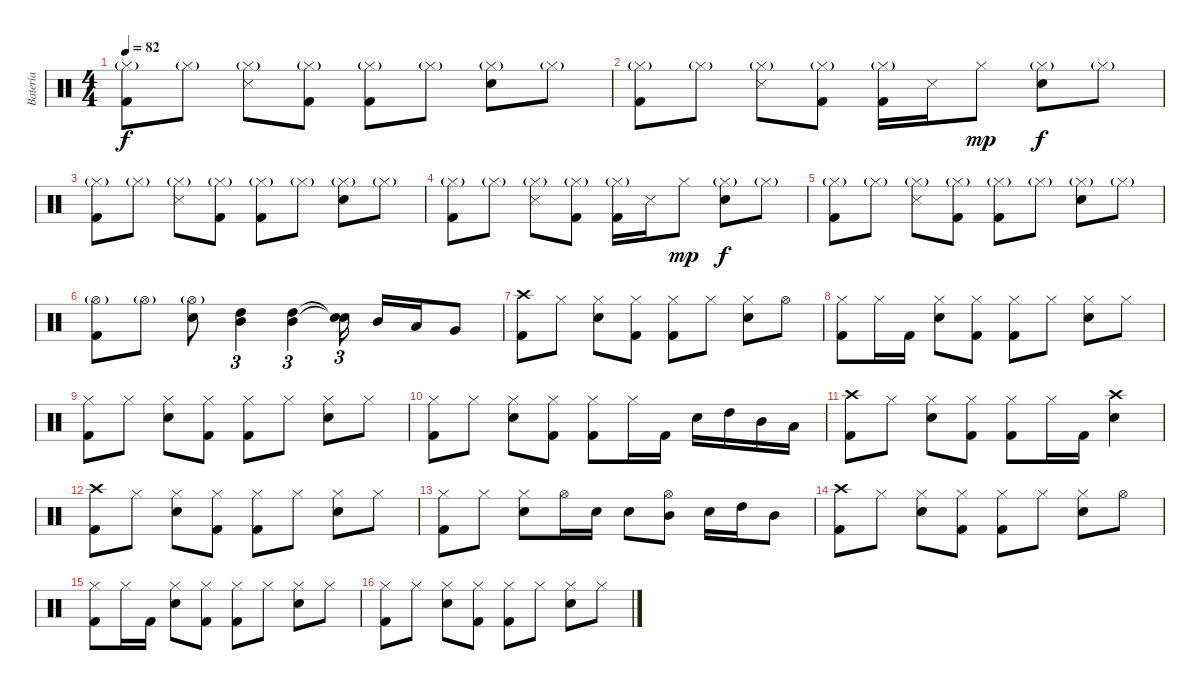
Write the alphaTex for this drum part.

\track ("Batería" "Batería") {instrument percussion}
\staff {score}
\articulation defaults
\ts (4 4)
\tempo 82
\clef neutral
\ks c
("Hi-Hat (closed)"{g} "Kick (hit) 2").8{dy f} "Hi-Hat (closed)"{g}.8 ("Hi-Hat (closed)"{g} "Snare (side stick) 3").8 ("Hi-Hat (closed)"{g} "Kick (hit) 2").8 ("Hi-Hat (closed)"{g} "Kick (hit) 2").8 "Hi-Hat (closed)"{g}.8 ("Hi-Hat (closed)"{g} "Snare (hit) 2").8 "Hi-Hat (closed)"{g}.8 |
("Hi-Hat (closed)"{g} "Kick (hit) 2").8 "Hi-Hat (closed)"{g}.8 ("Hi-Hat (closed)"{g} "Snare (side stick) 3").8 ("Hi-Hat (closed)"{g} "Kick (hit) 2").8 ("Hi-Hat (closed)"{g} "Kick (hit) 2").16 "Snare (side stick) 3".16 "Hi-Hat (closed)".8{dy mp} ("Hi-Hat (closed)"{g} "Snare (hit) 2").8{dy f} "Hi-Hat (closed)"{g}.8 |
("Hi-Hat (closed)"{g} "Kick (hit) 2").8 "Hi-Hat (closed)"{g}.8 ("Hi-Hat (closed)"{g} "Snare (side stick) 3").8 ("Hi-Hat (closed)"{g} "Kick (hit) 2").8 ("Hi-Hat (closed)"{g} "Kick (hit) 2").8 "Hi-Hat (closed)"{g}.8 ("Hi-Hat (closed)"{g} "Snare (hit) 2").8 "Hi-Hat (closed)"{g}.8 |
("Hi-Hat (closed)"{g} "Kick (hit) 2").8 "Hi-Hat (closed)"{g}.8 ("Hi-Hat (closed)"{g} "Snare (side stick) 3").8 ("Hi-Hat (closed)"{g} "Kick (hit) 2").8 ("Hi-Hat (closed)"{g} "Kick (hit) 2").16 "Snare (side stick) 3".16 "Hi-Hat (closed)".8{dy mp} ("Hi-Hat (closed)"{g} "Snare (hit) 2").8{dy f} "Hi-Hat (closed)"{g}.8 |
("Hi-Hat (closed)"{g} "Kick (hit) 2").8 "Hi-Hat (closed)"{g}.8 ("Hi-Hat (closed)"{g} "Snare (side stick) 3").8 ("Hi-Hat (closed)"{g} "Kick (hit) 2").8 ("Hi-Hat (closed)"{g} "Kick (hit) 2").8 "Hi-Hat (closed)"{g}.8 ("Hi-Hat (closed)"{g} "Snare (hit) 2").8 "Hi-Hat (closed)"{g}.8 |
("Hi-Hat (open)"{g} "Kick (hit) 2").8 "Hi-Hat (open)"{g}.8 ("Hi-Hat (open)"{g} "Snare (hit) 2").8 ("High Tom (hit)" "Mid Tom (hit)").4{tu (3 2)} ("High Tom (hit)" "Mid Tom (hit)").4{tu (3 2)} ("Snare (hit)"{t} "Snare (hit)"{t}).16{tu (3 2)} "Mid Tom (hit)".16 "Low Tom (hit)".16 "Very Low Tom (hit)".8 |
("Crash high (hit)" "Kick (hit) 2").8 "Hi-Hat (closed)".8 ("Hi-Hat (closed)" "Snare (hit) 2").8 ("Hi-Hat (closed)" "Kick (hit) 2").8 ("Hi-Hat (closed)" "Kick (hit) 2").8 "Hi-Hat (closed)".8 ("Hi-Hat (closed)" "Snare (hit) 2").8 "Hi-Hat (open)".8 |
("Hi-Hat (closed)" "Kick (hit) 2").8 "Hi-Hat (closed)".16 "Kick (hit) 2".16 ("Hi-Hat (closed)" "Snare (hit) 2").8 ("Hi-Hat (closed)" "Kick (hit) 2").8 ("Hi-Hat (closed)" "Kick (hit) 2").8 "Hi-Hat (closed)".8 ("Hi-Hat (closed)" "Snare (hit) 2").8 "Hi-Hat (closed)".8 |
("Hi-Hat (closed)" "Kick (hit) 2").8 "Hi-Hat (closed)".8 ("Hi-Hat (closed)" "Snare (hit) 2").8 ("Hi-Hat (closed)" "Kick (hit) 2").8 ("Hi-Hat (closed)" "Kick (hit) 2").8 "Hi-Hat (closed)".8 ("Hi-Hat (closed)" "Snare (hit) 2").8 "Hi-Hat (closed)".8 |
("Hi-Hat (closed)" "Kick (hit) 2").8 "Hi-Hat (closed)".8 ("Hi-Hat (closed)" "Snare (hit) 2").8 ("Hi-Hat (closed)" "Kick (hit) 2").8 ("Hi-Hat (closed)" "Kick (hit) 2").8 "Hi-Hat (closed)".16 "Kick (hit) 2".16 "Snare (hit) 2".16 "High Tom (hit)".16 "Mid Tom (hit)".16 "Low Tom (hit)".16 |
("Kick (hit) 2" "Crash high (hit)").8 "Hi-Hat (closed)".8 ("Hi-Hat (closed)" "Snare (hit) 2").8 ("Hi-Hat (closed)" "Kick (hit) 2").8 ("Hi-Hat (closed)" "Kick (hit) 2").8 "Hi-Hat (closed)".16 "Kick (hit) 2".16 ("Crash high (hit)" "Snare (hit) 2").4 |
("Kick (hit) 2" "Crash high (hit)").8 "Hi-Hat (closed)".8 ("Hi-Hat (closed)" "Snare (hit) 2").8 ("Hi-Hat (closed)" "Kick (hit) 2").8 ("Hi-Hat (closed)" "Kick (hit) 2").8 "Hi-Hat (closed)".8 ("Hi-Hat (closed)" "Snare (hit) 2").8 "Hi-Hat (closed)".8 |
("Kick (hit) 2" "Hi-Hat (closed)").8 "Hi-Hat (closed)".8 ("Hi-Hat (closed)" "Snare (hit) 2").8 "Hi-Hat (open)".16 "Snare (hit) 2".16 "Snare (hit) 2".8 ("Hi-Hat (open)" "Mid Tom (hit)").8 "Snare (hit) 2".16 "High Tom (hit)".16 "Mid Tom (hit)".8 |
("Crash high (hit)" "Kick (hit) 2").8 "Hi-Hat (closed)".8 ("Hi-Hat (closed)" "Snare (hit) 2").8 ("Hi-Hat (closed)" "Kick (hit) 2").8 ("Hi-Hat (closed)" "Kick (hit) 2").8 "Hi-Hat (closed)".8 ("Hi-Hat (closed)" "Snare (hit) 2").8 "Hi-Hat (open)".8 |
("Hi-Hat (closed)" "Kick (hit) 2").8 "Hi-Hat (closed)".16 "Kick (hit) 2".16 ("Hi-Hat (closed)" "Snare (hit) 2").8 ("Hi-Hat (closed)" "Kick (hit) 2").8 ("Hi-Hat (closed)" "Kick (hit) 2").8 "Hi-Hat (closed)".8 ("Hi-Hat (closed)" "Snare (hit) 2").8 "Hi-Hat (closed)".8 |
("Hi-Hat (closed)" "Kick (hit) 2").8 "Hi-Hat (closed)".8 ("Hi-Hat (closed)" "Snare (hit) 2").8 ("Hi-Hat (closed)" "Kick (hit) 2").8 ("Hi-Hat (closed)" "Kick (hit) 2").8 "Hi-Hat (closed)".8 ("Hi-Hat (closed)" "Snare (hit) 2").8 "Hi-Hat (closed)".8
